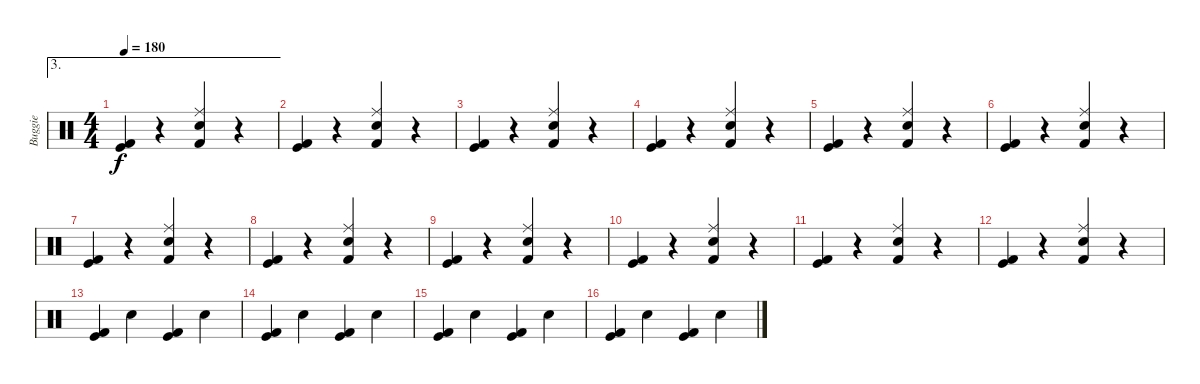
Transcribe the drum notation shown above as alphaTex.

\track ("Buggie" "Buggie") {instrument percussion}
\staff {score}
\articulation defaults
\ae 3
\ts (4 4)
\tempo 180
\clef neutral
\ks c
("Kick (hit)" "Kick (hit) 2").4{dy f} r.4 ("Ride (middle)" "Electric Snare (hit)" "Kick (hit) 2").4 r.4 |
("Kick (hit)" "Kick (hit) 2").4 r.4 ("Ride (middle)" "Electric Snare (hit)" "Kick (hit) 2").4 r.4 |
("Kick (hit)" "Kick (hit) 2").4 r.4 ("Ride (middle)" "Electric Snare (hit)" "Kick (hit) 2").4 r.4 |
("Kick (hit)" "Kick (hit) 2").4 r.4 ("Ride (middle)" "Electric Snare (hit)" "Kick (hit) 2").4 r.4 |
("Kick (hit)" "Kick (hit) 2").4 r.4 ("Ride (middle)" "Electric Snare (hit)" "Kick (hit) 2").4 r.4 |
("Kick (hit)" "Kick (hit) 2").4 r.4 ("Ride (middle)" "Electric Snare (hit)" "Kick (hit) 2").4 r.4 |
("Kick (hit)" "Kick (hit) 2").4 r.4 ("Ride (middle)" "Electric Snare (hit)" "Kick (hit) 2").4 r.4 |
("Kick (hit)" "Kick (hit) 2").4 r.4 ("Ride (middle)" "Electric Snare (hit)" "Kick (hit) 2").4 r.4 |
("Kick (hit)" "Kick (hit) 2").4 r.4 ("Ride (middle)" "Electric Snare (hit)" "Kick (hit) 2").4 r.4 |
("Kick (hit)" "Kick (hit) 2").4 r.4 ("Ride (middle)" "Electric Snare (hit)" "Kick (hit) 2").4 r.4 |
("Kick (hit)" "Kick (hit) 2").4 r.4 ("Ride (middle)" "Electric Snare (hit)" "Kick (hit) 2").4 r.4 |
("Kick (hit)" "Kick (hit) 2").4 r.4 ("Ride (middle)" "Electric Snare (hit)" "Kick (hit) 2").4 r.4 |
("Kick (hit)" "Kick (hit) 2").4 "Electric Snare (hit)".4 ("Kick (hit)" "Kick (hit) 2").4 "Electric Snare (hit)".4 |
("Kick (hit)" "Kick (hit) 2").4 "Electric Snare (hit)".4 ("Kick (hit)" "Kick (hit) 2").4 "Electric Snare (hit)".4 |
("Kick (hit)" "Kick (hit) 2").4 "Electric Snare (hit)".4 ("Kick (hit)" "Kick (hit) 2").4 "Electric Snare (hit)".4 |
("Kick (hit)" "Kick (hit) 2").4 "Electric Snare (hit)".4 ("Kick (hit)" "Kick (hit) 2").4 "Electric Snare (hit)".4
